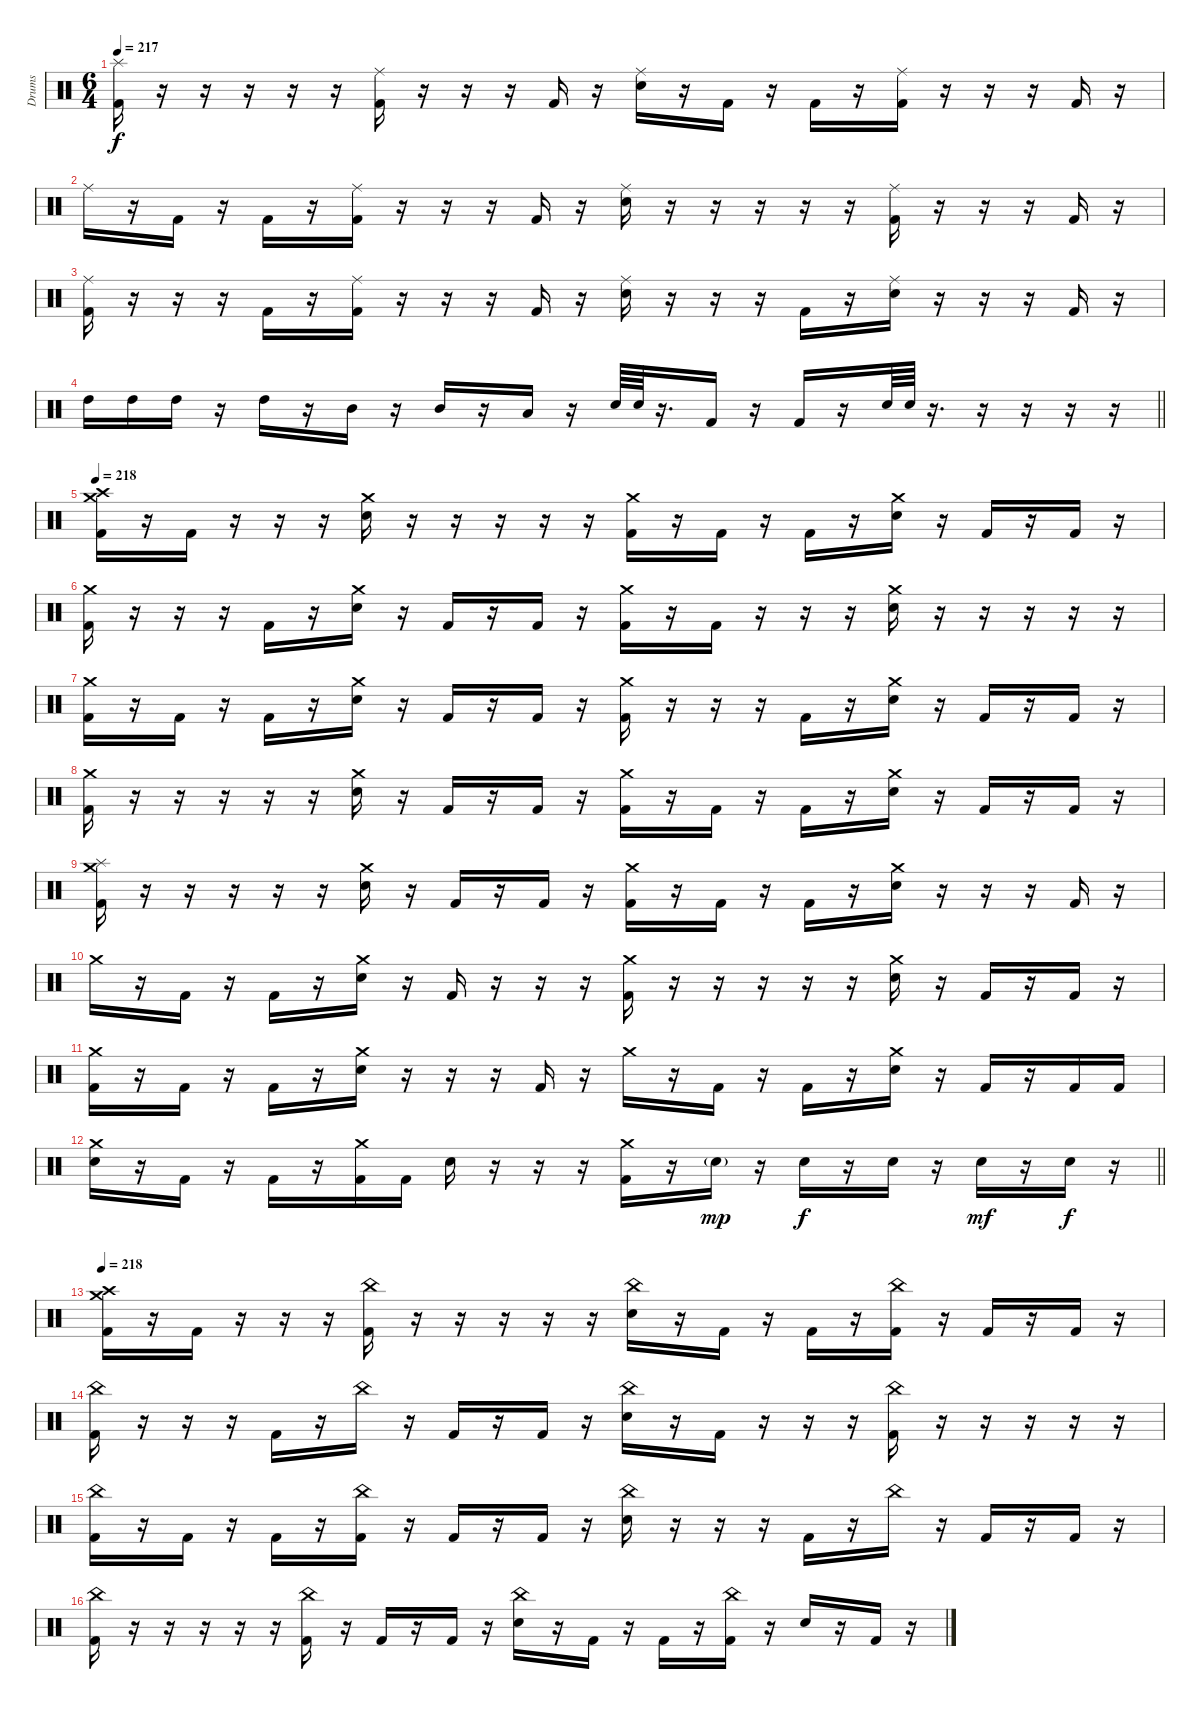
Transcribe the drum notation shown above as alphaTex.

\track ("Drums" "Drums") {instrument percussion}
\staff {score}
\articulation defaults
\ts (6 4)
\tempo 217
\clef neutral
\ks c
("Splash (hit)" "Kick (hit) 2").16{dy f} r.16 r.16 r.16 r.16 r.16 ("Ride (middle)" "Kick (hit) 2").16 r.16 r.16 r.16 "Kick (hit) 2".16 r.16 ("Ride (middle)" "Electric Snare (hit)").16 r.16 "Kick (hit) 2".16 r.16 "Kick (hit) 2".16 r.16 ("Ride (middle)" "Kick (hit) 2").16 r.16 r.16 r.16 "Kick (hit) 2".16 r.16 |
"Ride (middle)".16 r.16 "Kick (hit) 2".16 r.16 "Kick (hit) 2".16 r.16 ("Ride (middle)" "Kick (hit) 2").16 r.16 r.16 r.16 "Kick (hit) 2".16 r.16 ("Ride (middle)" "Electric Snare (hit)").16 r.16 r.16 r.16 r.16 r.16 ("Ride (middle)" "Kick (hit) 2").16 r.16 r.16 r.16 "Kick (hit) 2".16 r.16 |
("Ride (middle)" "Kick (hit) 2").16 r.16 r.16 r.16 "Kick (hit) 2".16 r.16 ("Ride (middle)" "Kick (hit) 2").16 r.16 r.16 r.16 "Kick (hit) 2".16 r.16 ("Ride (middle)" "Electric Snare (hit)").16 r.16 r.16 r.16 "Kick (hit) 2".16 r.16 ("Ride (middle)" "Electric Snare (hit)").16 r.16 r.16 r.16 "Kick (hit) 2".16 r.16 |
\barLineRight lightlight "High Tom (hit)".16 "High Tom (hit)".16 "High Tom (hit)".16
r.16 "High Tom (hit)".16 r.16 "Mid Tom (hit)".16 r.16 "Mid Tom (hit)".16 r.16 "Low Tom (hit)".16 r.16 "Electric Snare (hit)".64 "Electric Snare (hit)".64 r.16{d} "Kick (hit) 2".16 r.16 "Kick (hit) 2".16 r.16 "Electric Snare (hit)".64 "Electric Snare (hit)".64 r.16{d} r.16 r.16 r.16 r.16 |
\section ("" "")
\tempo 218
("Crash medium (hit)" "Crash high (hit)" "Kick (hit) 2").16 r.16 "Kick (hit) 2".16 r.16 r.16 r.16 ("Crash medium (hit)" "Electric Snare (hit)").16 r.16 r.16 r.16 r.16 r.16 ("Crash medium (hit)" "Kick (hit) 2").16 r.16 "Kick (hit) 2".16 r.16 "Kick (hit) 2".16 r.16 ("Crash medium (hit)" "Electric Snare (hit)").16 r.16 "Kick (hit) 2".16 r.16 "Kick (hit) 2".16 r.16 |
("Crash medium (hit)" "Kick (hit) 2").16 r.16 r.16 r.16 "Kick (hit) 2".16 r.16 ("Crash medium (hit)" "Electric Snare (hit)").16 r.16 "Kick (hit) 2".16 r.16 "Kick (hit) 2".16 r.16 ("Crash medium (hit)" "Kick (hit) 2").16 r.16 "Kick (hit) 2".16 r.16 r.16 r.16 ("Crash medium (hit)" "Electric Snare (hit)").16 r.16 r.16 r.16 r.16 r.16 |
("Crash medium (hit)" "Kick (hit) 2").16 r.16 "Kick (hit) 2".16 r.16 "Kick (hit) 2".16 r.16 ("Crash medium (hit)" "Electric Snare (hit)").16 r.16 "Kick (hit) 2".16 r.16 "Kick (hit) 2".16 r.16 ("Crash medium (hit)" "Kick (hit) 2").16 r.16 r.16 r.16 "Kick (hit) 2".16 r.16 ("Crash medium (hit)" "Electric Snare (hit)").16 r.16 "Kick (hit) 2".16 r.16 "Kick (hit) 2".16 r.16 |
("Crash medium (hit)" "Kick (hit) 2").16 r.16 r.16 r.16 r.16 r.16 ("Crash medium (hit)" "Electric Snare (hit)").16 r.16 "Kick (hit) 2".16 r.16 "Kick (hit) 2".16 r.16 ("Crash medium (hit)" "Kick (hit) 2").16 r.16 "Kick (hit) 2".16 r.16 "Kick (hit) 2".16 r.16 ("Crash medium (hit)" "Electric Snare (hit)").16 r.16 "Kick (hit) 2".16 r.16 "Kick (hit) 2".16 r.16 |
("Crash medium (hit)" "Splash (hit)" "Kick (hit) 2").16 r.16 r.16 r.16 r.16 r.16 ("Crash medium (hit)" "Electric Snare (hit)").16 r.16 "Kick (hit) 2".16 r.16 "Kick (hit) 2".16 r.16 ("Crash medium (hit)" "Kick (hit) 2").16 r.16 "Kick (hit) 2".16 r.16 "Kick (hit) 2".16 r.16 ("Crash medium (hit)" "Electric Snare (hit)").16 r.16 r.16 r.16 "Kick (hit) 2".16 r.16 |
"Crash medium (hit)".16 r.16 "Kick (hit) 2".16 r.16 "Kick (hit) 2".16 r.16 ("Crash medium (hit)" "Electric Snare (hit)").16 r.16 "Kick (hit) 2".16 r.16 r.16 r.16 ("Crash medium (hit)" "Kick (hit) 2").16 r.16 r.16 r.16 r.16 r.16 ("Crash medium (hit)" "Electric Snare (hit)").16 r.16 "Kick (hit) 2".16 r.16 "Kick (hit) 2".16 r.16 |
("Crash medium (hit)" "Kick (hit) 2").16 r.16 "Kick (hit) 2".16 r.16 "Kick (hit) 2".16 r.16 ("Crash medium (hit)" "Electric Snare (hit)").16 r.16 r.16 r.16 "Kick (hit) 2".16 r.16 "Crash medium (hit)".16 r.16 "Kick (hit) 2".16 r.16 "Kick (hit) 2".16 r.16 ("Crash medium (hit)" "Electric Snare (hit)").16 r.16 "Kick (hit) 2".16 r.16 "Kick (hit) 2".16 "Kick (hit) 2".16 |
\barLineRight lightlight
("Crash medium (hit)" "Electric Snare (hit)").16 r.16 "Kick (hit) 2".16 r.16 "Kick (hit) 2".16 r.16 ("Crash medium (hit)" "Kick (hit) 2").16 "Kick (hit) 2".16 "Electric Snare (hit)".16 r.16 r.16 r.16 ("Crash medium (hit)" "Kick (hit) 2").16 r.16 "Electric Snare (hit)"{g}.16{dy mp} r.16 "Electric Snare (hit)".16{dy f} r.16 "Electric Snare (hit)".16 r.16 "Electric Snare (hit)".16{dy mf} r.16 "Electric Snare (hit)".16{dy f} r.16 |
\section ("" "")
\tempo 218
("Crash medium (hit)" "Crash high (hit)" "Kick (hit) 2").16 r.16 "Kick (hit) 2".16 r.16 r.16 r.16 ("China (hit)" "Kick (hit) 2").16 r.16 r.16 r.16 r.16 r.16 ("China (hit)" "Electric Snare (hit)").16 r.16 "Kick (hit) 2".16 r.16 "Kick (hit) 2".16 r.16 ("China (hit)" "Kick (hit) 2").16 r.16 "Kick (hit) 2".16 r.16 "Kick (hit) 2".16 r.16 |
("China (hit)" "Kick (hit) 2").16 r.16 r.16 r.16 "Kick (hit) 2".16 r.16 "China (hit)".16 r.16 "Kick (hit) 2".16 r.16 "Kick (hit) 2".16 r.16 ("China (hit)" "Electric Snare (hit)").16 r.16 "Kick (hit) 2".16 r.16 r.16 r.16 ("China (hit)" "Kick (hit) 2").16 r.16 r.16 r.16 r.16 r.16 |
("China (hit)" "Kick (hit) 2").16 r.16 "Kick (hit) 2".16 r.16 "Kick (hit) 2".16 r.16 ("China (hit)" "Kick (hit) 2").16 r.16 "Kick (hit) 2".16 r.16 "Kick (hit) 2".16 r.16 ("China (hit)" "Electric Snare (hit)").16 r.16 r.16 r.16 "Kick (hit) 2".16 r.16 "China (hit)".16 r.16 "Kick (hit) 2".16 r.16 "Kick (hit) 2".16 r.16 |
("China (hit)" "Kick (hit) 2").16 r.16 r.16 r.16 r.16 r.16 ("China (hit)" "Kick (hit) 2").16 r.16 "Kick (hit) 2".16 r.16 "Kick (hit) 2".16 r.16 ("China (hit)" "Electric Snare (hit)").16 r.16 "Kick (hit) 2".16 r.16 "Kick (hit) 2".16 r.16 ("China (hit)" "Kick (hit) 2").16 r.16 "Electric Snare (hit)".16 r.16 "Kick (hit) 2".16 r.16
